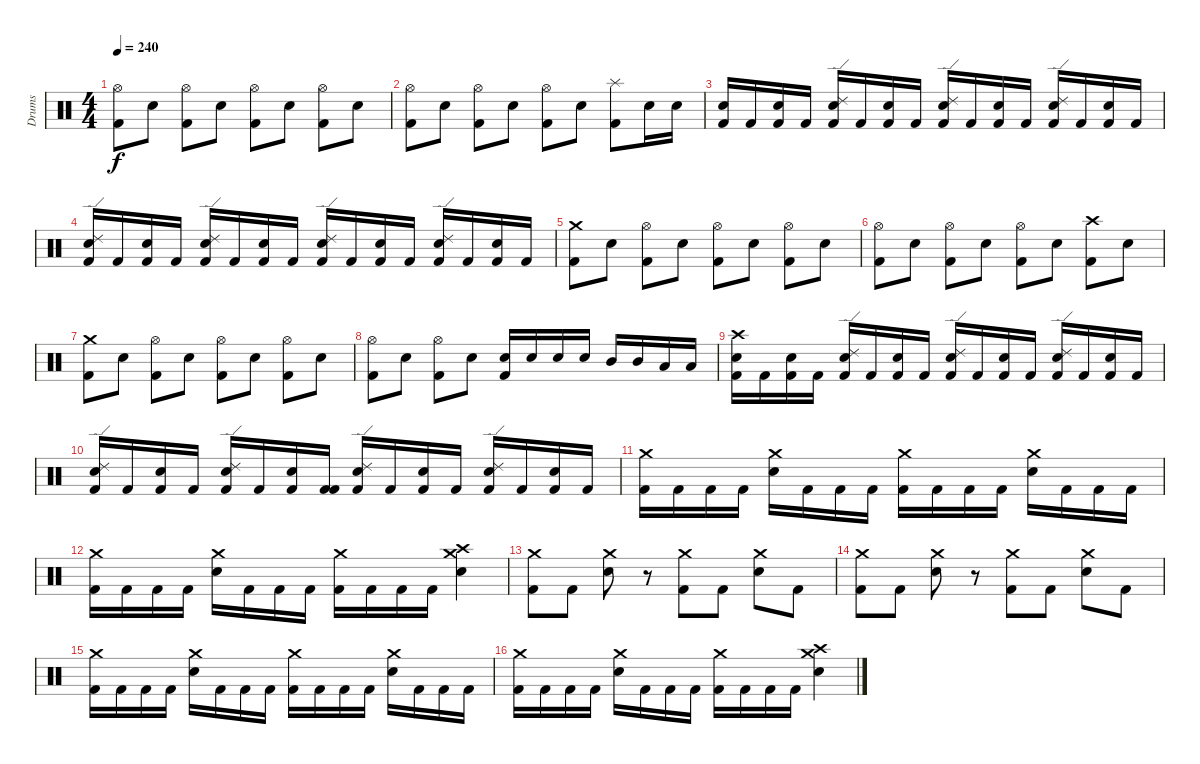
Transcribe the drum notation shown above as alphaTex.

\track ("Drums" "Drums") {instrument percussion}
\staff {score}
\articulation defaults
\ts (4 4)
\tempo 240
\clef neutral
\ks c
("Hi-Hat (open)" "Kick (hit) 2").8{dy f} "Electric Snare (hit)".8 ("Hi-Hat (open)" "Kick (hit) 2").8 "Electric Snare (hit)".8 ("Hi-Hat (open)" "Kick (hit) 2").8 "Electric Snare (hit)".8 ("Hi-Hat (open)" "Kick (hit) 2").8 "Electric Snare (hit)".8 |
("Hi-Hat (open)" "Kick (hit) 2").8 "Electric Snare (hit)".8 ("Hi-Hat (open)" "Kick (hit) 2").8 "Electric Snare (hit)".8 ("Hi-Hat (open)" "Kick (hit) 2").8 "Electric Snare (hit)".8 ("Splash (hit)" "Kick (hit) 2").8 "Electric Snare (hit)".16 "Electric Snare (hit)".16 |
("Electric Snare (hit)" "Kick (hit) 2").16 "Kick (hit) 2".16 ("Electric Snare (hit)" "Kick (hit) 2").16 "Kick (hit) 2".16 ("Ride (edge) 2" "Electric Snare (hit)" "Kick (hit) 2").16 "Kick (hit) 2".16 ("Electric Snare (hit)" "Kick (hit) 2").16 "Kick (hit) 2".16 ("Ride (edge) 2" "Electric Snare (hit)" "Kick (hit) 2").16 "Kick (hit) 2".16 ("Electric Snare (hit)" "Kick (hit) 2").16 "Kick (hit) 2".16 ("Ride (edge) 2" "Electric Snare (hit)" "Kick (hit) 2").16 "Kick (hit) 2".16 ("Electric Snare (hit)" "Kick (hit) 2").16 "Kick (hit) 2".16 |
("Ride (edge) 2" "Electric Snare (hit)" "Kick (hit) 2").16 "Kick (hit) 2".16 ("Electric Snare (hit)" "Kick (hit) 2").16 "Kick (hit) 2".16 ("Ride (edge) 2" "Electric Snare (hit)" "Kick (hit) 2").16 "Kick (hit) 2".16 ("Electric Snare (hit)" "Kick (hit) 2").16 "Kick (hit) 2".16 ("Ride (edge) 2" "Electric Snare (hit)" "Kick (hit) 2").16 "Kick (hit) 2".16 ("Electric Snare (hit)" "Kick (hit) 2").16 "Kick (hit) 2".16 ("Ride (edge) 2" "Electric Snare (hit)" "Kick (hit) 2").16 "Kick (hit) 2".16 ("Electric Snare (hit)" "Kick (hit) 2").16 "Kick (hit) 2".16 |
("Crash medium (hit)" "Kick (hit) 2").8 "Electric Snare (hit)".8 ("Hi-Hat (open)" "Kick (hit) 2").8 "Electric Snare (hit)".8 ("Hi-Hat (open)" "Kick (hit) 2").8 "Electric Snare (hit)".8 ("Hi-Hat (open)" "Kick (hit) 2").8 "Electric Snare (hit)".8 |
("Hi-Hat (open)" "Kick (hit) 2").8 "Electric Snare (hit)".8 ("Hi-Hat (open)" "Kick (hit) 2").8 "Electric Snare (hit)".8 ("Hi-Hat (open)" "Kick (hit) 2").8 "Electric Snare (hit)".8 ("Crash high (hit)" "Kick (hit) 2").8 "Electric Snare (hit)".8 |
("Crash medium (hit)" "Kick (hit) 2").8 "Electric Snare (hit)".8 ("Hi-Hat (open)" "Kick (hit) 2").8 "Electric Snare (hit)".8 ("Hi-Hat (open)" "Kick (hit) 2").8 "Electric Snare (hit)".8 ("Hi-Hat (open)" "Kick (hit) 2").8 "Electric Snare (hit)".8 |
("Hi-Hat (open)" "Kick (hit) 2").8 "Electric Snare (hit)".8 ("Hi-Hat (open)" "Kick (hit) 2").8 "Electric Snare (hit)".8 ("Electric Snare (hit)" "Kick (hit) 2").16 "Electric Snare (hit)".16 "Electric Snare (hit)".16 "Electric Snare (hit)".16 "Mid Tom (hit)".16 "Mid Tom (hit)".16 "Low Tom (hit)".16 "Low Tom (hit)".16 |
("Crash high (hit)" "Electric Snare (hit)" "Kick (hit) 2").16 "Kick (hit) 2".16 ("Electric Snare (hit)" "Kick (hit) 2").16 "Kick (hit) 2".16 ("Ride (edge) 2" "Electric Snare (hit)" "Kick (hit) 2").16 "Kick (hit) 2".16 ("Electric Snare (hit)" "Kick (hit) 2").16 "Kick (hit) 2".16 ("Ride (edge) 2" "Electric Snare (hit)" "Kick (hit) 2").16 "Kick (hit) 2".16 ("Electric Snare (hit)" "Kick (hit) 2").16 "Kick (hit) 2".16 ("Ride (edge) 2" "Electric Snare (hit)" "Kick (hit) 2").16 "Kick (hit) 2".16 ("Electric Snare (hit)" "Kick (hit) 2").16 "Kick (hit) 2".16 |
("Ride (edge) 2" "Electric Snare (hit)" "Kick (hit) 2").16 "Kick (hit) 2".16 ("Electric Snare (hit)" "Kick (hit) 2").16 "Kick (hit) 2".16 ("Ride (edge) 2" "Electric Snare (hit)" "Kick (hit) 2").16 "Kick (hit) 2".16 ("Electric Snare (hit)" "Kick (hit) 2").16 ("Kick (hit) 2" "Kick (hit) 2").16 ("Ride (edge) 2" "Electric Snare (hit)" "Kick (hit) 2").16 "Kick (hit) 2".16 ("Electric Snare (hit)" "Kick (hit) 2").16 "Kick (hit) 2".16 ("Ride (edge) 2" "Electric Snare (hit)" "Kick (hit) 2").16 "Kick (hit) 2".16 ("Electric Snare (hit)" "Kick (hit) 2").16 "Kick (hit) 2".16 |
("Crash medium (hit)" "Kick (hit) 2").16 "Kick (hit) 2".16 "Kick (hit) 2".16 "Kick (hit) 2".16 ("Crash medium (hit)" "Electric Snare (hit)").16 "Kick (hit) 2".16 "Kick (hit) 2".16 "Kick (hit) 2".16 ("Crash medium (hit)" "Kick (hit) 2").16 "Kick (hit) 2".16 "Kick (hit) 2".16 "Kick (hit) 2".16 ("Crash medium (hit)" "Electric Snare (hit)").16 "Kick (hit) 2".16 "Kick (hit) 2".16 "Kick (hit) 2".16 |
("Crash medium (hit)" "Kick (hit) 2").16 "Kick (hit) 2".16 "Kick (hit) 2".16 "Kick (hit) 2".16 ("Crash medium (hit)" "Electric Snare (hit)").16 "Kick (hit) 2".16 "Kick (hit) 2".16 "Kick (hit) 2".16 ("Crash medium (hit)" "Kick (hit) 2").16 "Kick (hit) 2".16 "Kick (hit) 2".16 "Kick (hit) 2".16 ("Crash high (hit)" "Crash medium (hit)" "Electric Snare (hit)").4 |
("Crash medium (hit)" "Kick (hit) 2").8 "Kick (hit) 2".8 ("Crash medium (hit)" "Electric Snare (hit)").8 r.8 ("Crash medium (hit)" "Kick (hit) 2").8 "Kick (hit) 2".8 ("Crash medium (hit)" "Electric Snare (hit)").8 "Kick (hit) 2".8 |
("Crash medium (hit)" "Kick (hit) 2").8 "Kick (hit) 2".8 ("Crash medium (hit)" "Electric Snare (hit)").8 r.8 ("Crash medium (hit)" "Kick (hit) 2").8 "Kick (hit) 2".8 ("Crash medium (hit)" "Electric Snare (hit)").8 "Kick (hit) 2".8 |
("Crash medium (hit)" "Kick (hit) 2").16 "Kick (hit) 2".16 "Kick (hit) 2".16 "Kick (hit) 2".16 ("Crash medium (hit)" "Electric Snare (hit)").16 "Kick (hit) 2".16 "Kick (hit) 2".16 "Kick (hit) 2".16 ("Crash medium (hit)" "Kick (hit) 2").16 "Kick (hit) 2".16 "Kick (hit) 2".16 "Kick (hit) 2".16 ("Crash medium (hit)" "Electric Snare (hit)").16 "Kick (hit) 2".16 "Kick (hit) 2".16 "Kick (hit) 2".16 |
("Crash medium (hit)" "Kick (hit) 2").16 "Kick (hit) 2".16 "Kick (hit) 2".16 "Kick (hit) 2".16 ("Crash medium (hit)" "Electric Snare (hit)").16 "Kick (hit) 2".16 "Kick (hit) 2".16 "Kick (hit) 2".16 ("Crash medium (hit)" "Kick (hit) 2").16 "Kick (hit) 2".16 "Kick (hit) 2".16 "Kick (hit) 2".16 ("Crash high (hit)" "Crash medium (hit)" "Electric Snare (hit)").4
